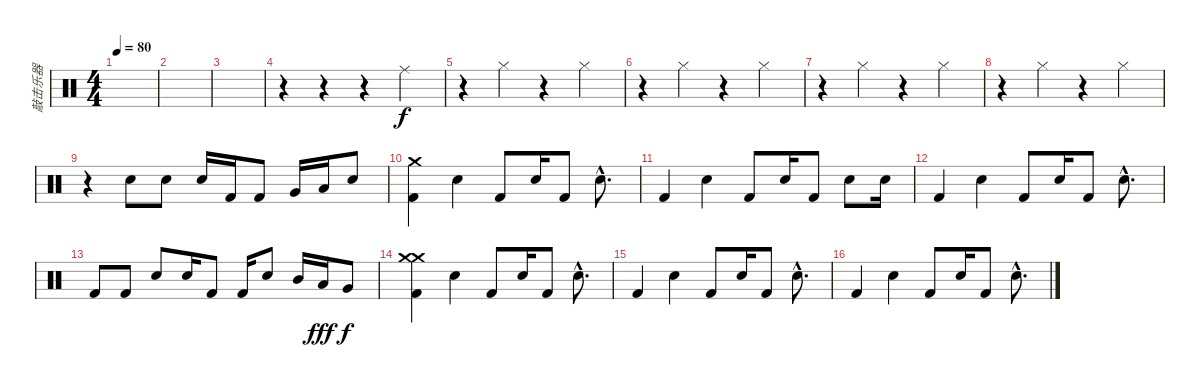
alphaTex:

\track ("敲击乐器" "敲击乐器") {instrument percussion}
\staff {score}
\articulation defaults
\ts (4 4)
\tempo 80
\clef neutral
\ks c
|
|
|
r.4 r.4 r.4 "Ride (middle)".4 |
r.4 "Hi-Hat (closed)".4 r.4 "Hi-Hat (closed)".4 |
r.4 "Hi-Hat (closed)".4 r.4 "Hi-Hat (closed)".4 |
r.4 "Hi-Hat (closed)".4 r.4 "Hi-Hat (closed)".4 |
r.4 "Hi-Hat (closed)".4 r.4 "Hi-Hat (closed)".4 |
r.4 "Electric Snare (hit)".8 "Electric Snare (hit)".8 "Electric Snare (hit)".16 "Kick (hit) 2".16 "Kick (hit) 2".8 "Very Low Tom (hit)".16 "Low Floor Tom (hit)".16 "Electric Snare (hit)".8 |
("Crash medium (hit)" "Kick (hit) 2").4 "Electric Snare (hit)".4 "Kick (hit) 2".8 "Electric Snare (hit)".16 "Kick (hit) 2".8 "Electric Snare (hit)"{hac}.8{d} |
"Kick (hit) 2".4 "Electric Snare (hit)".4 "Kick (hit) 2".8 "Electric Snare (hit)".16 "Kick (hit) 2".8 "Electric Snare (hit)".8 "Electric Snare (hit)".16 |
"Kick (hit) 2".4 "Electric Snare (hit)".4 "Kick (hit) 2".8 "Electric Snare (hit)".16 "Kick (hit) 2".8 "Electric Snare (hit)"{hac}.8{d} |
"Kick (hit) 2".8 "Kick (hit) 2".8 "Electric Snare (hit)".8 "Electric Snare (hit)".16 "Kick (hit) 2".8 "Kick (hit) 2".16 "Electric Snare (hit)".8 "Mid Tom (hit)".16 "Low Tom (hit)".16{dy fff} "Very Low Tom (hit)".8{dy f} |
("Crash medium (hit)" "Crash medium (hit)" "Kick (hit) 2").4 "Electric Snare (hit)".4 "Kick (hit) 2".8 "Electric Snare (hit)".16 "Kick (hit) 2".8 "Electric Snare (hit)"{hac}.8{d} |
"Kick (hit) 2".4 "Electric Snare (hit)".4 "Kick (hit) 2".8 "Electric Snare (hit)".16 "Kick (hit) 2".8 "Electric Snare (hit)"{hac}.8{d} |
"Kick (hit) 2".4 "Electric Snare (hit)".4 "Kick (hit) 2".8 "Electric Snare (hit)".16 "Kick (hit) 2".8 "Electric Snare (hit)"{hac}.8{d}
